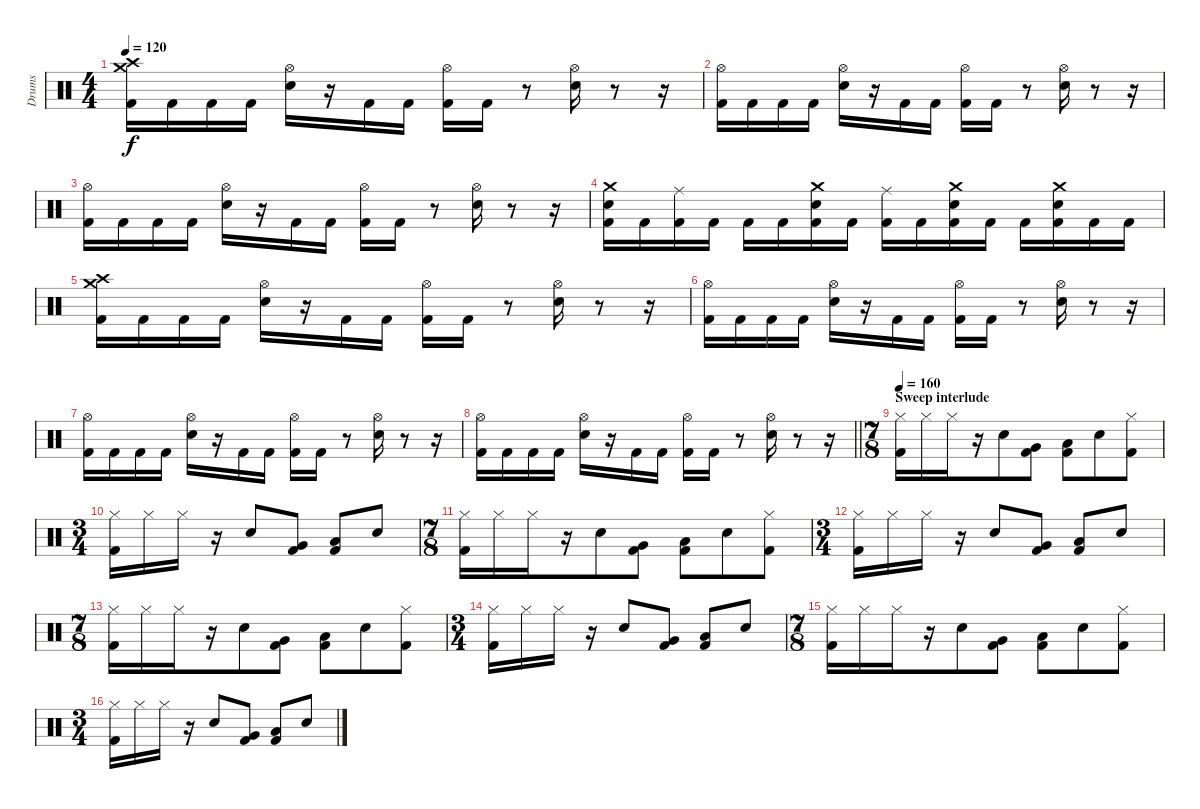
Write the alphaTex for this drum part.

\track ("Drums" "Drums") {instrument percussion}
\staff {score}
\articulation defaults
\ts (4 4)
\tempo 120
\clef neutral
\ks c
("Crash medium (hit)" "Crash high (hit)" "Kick (hit) 2").16{dy f} "Kick (hit) 2".16 "Kick (hit) 2".16 "Kick (hit) 2".16 ("Hi-Hat (open)" "Electric Snare (hit)").16 r.16 "Kick (hit) 2".16 "Kick (hit) 2".16 ("Hi-Hat (open)" "Kick (hit) 2").16 "Kick (hit) 2".16 r.8 ("Hi-Hat (open)" "Electric Snare (hit)").16 r.8 r.16 |
("Hi-Hat (open)" "Kick (hit) 2").16 "Kick (hit) 2".16 "Kick (hit) 2".16 "Kick (hit) 2".16 ("Hi-Hat (open)" "Electric Snare (hit)").16 r.16 "Kick (hit) 2".16 "Kick (hit) 2".16 ("Hi-Hat (open)" "Kick (hit) 2").16 "Kick (hit) 2".16 r.8 ("Hi-Hat (open)" "Electric Snare (hit)").16 r.8 r.16 |
("Hi-Hat (open)" "Kick (hit) 2").16 "Kick (hit) 2".16 "Kick (hit) 2".16 "Kick (hit) 2".16 ("Hi-Hat (open)" "Electric Snare (hit)").16 r.16 "Kick (hit) 2".16 "Kick (hit) 2".16 ("Hi-Hat (open)" "Kick (hit) 2").16 "Kick (hit) 2".16 r.8 ("Hi-Hat (open)" "Electric Snare (hit)").16 r.8 r.16 |
("Crash medium (hit)" "Electric Snare (hit)" "Kick (hit) 2").16 "Kick (hit) 2".16 ("Ride (middle)" "Kick (hit) 2").16 "Kick (hit) 2".16 "Kick (hit) 2".16 "Kick (hit) 2".16 ("Crash medium (hit)" "Electric Snare (hit)" "Kick (hit) 2").16 "Kick (hit) 2".16 ("Ride (middle)" "Kick (hit) 2").16 "Kick (hit) 2".16 ("Crash medium (hit)" "Electric Snare (hit)" "Kick (hit) 2").16 "Kick (hit) 2".16 "Kick (hit) 2".16 ("Crash medium (hit)" "Electric Snare (hit)" "Kick (hit) 2").16 "Kick (hit) 2".16 "Kick (hit) 2".16 |
("Crash medium (hit)" "Crash high (hit)" "Kick (hit) 2").16 "Kick (hit) 2".16 "Kick (hit) 2".16 "Kick (hit) 2".16 ("Hi-Hat (open)" "Electric Snare (hit)").16 r.16 "Kick (hit) 2".16 "Kick (hit) 2".16 ("Hi-Hat (open)" "Kick (hit) 2").16 "Kick (hit) 2".16 r.8 ("Hi-Hat (open)" "Electric Snare (hit)").16 r.8 r.16 |
("Hi-Hat (open)" "Kick (hit) 2").16 "Kick (hit) 2".16 "Kick (hit) 2".16 "Kick (hit) 2".16 ("Hi-Hat (open)" "Electric Snare (hit)").16 r.16 "Kick (hit) 2".16 "Kick (hit) 2".16 ("Hi-Hat (open)" "Kick (hit) 2").16 "Kick (hit) 2".16 r.8 ("Hi-Hat (open)" "Electric Snare (hit)").16 r.8 r.16 |
("Hi-Hat (open)" "Kick (hit) 2").16 "Kick (hit) 2".16 "Kick (hit) 2".16 "Kick (hit) 2".16 ("Hi-Hat (open)" "Electric Snare (hit)").16 r.16 "Kick (hit) 2".16 "Kick (hit) 2".16 ("Hi-Hat (open)" "Kick (hit) 2").16 "Kick (hit) 2".16 r.8 ("Hi-Hat (open)" "Electric Snare (hit)").16 r.8 r.16 |
\barLineRight lightlight
("Hi-Hat (open)" "Kick (hit) 2").16 "Kick (hit) 2".16 "Kick (hit) 2".16 "Kick (hit) 2".16 ("Hi-Hat (open)" "Electric Snare (hit)").16 r.16 "Kick (hit) 2".16 "Kick (hit) 2".16 ("Hi-Hat (open)" "Kick (hit) 2").16 "Kick (hit) 2".16 r.8 ("Hi-Hat (open)" "Electric Snare (hit)").16 r.8 r.16 |
\ts (7 8)
\section ("" "Sweep interlude")
\tempo 160
("Hi-Hat (closed)" "Kick (hit) 2").16 "Hi-Hat (closed)".16 "Hi-Hat (closed)".16 r.16 "Electric Snare (hit)".8 ("Very Low Tom (hit)" "Kick (hit) 2").8 ("Low Floor Tom (hit)" "Kick (hit) 2").8 "Electric Snare (hit)".8 ("Hi-Hat (closed)" "Kick (hit) 2").8 |
\ts (3 4)
("Hi-Hat (closed)" "Kick (hit) 2").16 "Hi-Hat (closed)".16 "Hi-Hat (closed)".16 r.16 "Electric Snare (hit)".8 ("Very Low Tom (hit)" "Kick (hit) 2").8 ("Low Floor Tom (hit)" "Kick (hit) 2").8 "Electric Snare (hit)".8 |
\ts (7 8)
("Hi-Hat (closed)" "Kick (hit) 2").16 "Hi-Hat (closed)".16 "Hi-Hat (closed)".16 r.16 "Electric Snare (hit)".8 ("Very Low Tom (hit)" "Kick (hit) 2").8 ("Low Floor Tom (hit)" "Kick (hit) 2").8 "Electric Snare (hit)".8 ("Hi-Hat (closed)" "Kick (hit) 2").8 |
\ts (3 4)
("Hi-Hat (closed)" "Kick (hit) 2").16 "Hi-Hat (closed)".16 "Hi-Hat (closed)".16 r.16 "Electric Snare (hit)".8 ("Very Low Tom (hit)" "Kick (hit) 2").8 ("Low Floor Tom (hit)" "Kick (hit) 2").8 "Electric Snare (hit)".8 |
\ts (7 8)
("Hi-Hat (closed)" "Kick (hit) 2").16 "Hi-Hat (closed)".16 "Hi-Hat (closed)".16 r.16 "Electric Snare (hit)".8 ("Very Low Tom (hit)" "Kick (hit) 2").8 ("Low Floor Tom (hit)" "Kick (hit) 2").8 "Electric Snare (hit)".8 ("Hi-Hat (closed)" "Kick (hit) 2").8 |
\ts (3 4)
("Hi-Hat (closed)" "Kick (hit) 2").16 "Hi-Hat (closed)".16 "Hi-Hat (closed)".16 r.16 "Electric Snare (hit)".8 ("Very Low Tom (hit)" "Kick (hit) 2").8 ("Low Floor Tom (hit)" "Kick (hit) 2").8 "Electric Snare (hit)".8 |
\ts (7 8)
("Hi-Hat (closed)" "Kick (hit) 2").16 "Hi-Hat (closed)".16 "Hi-Hat (closed)".16 r.16 "Electric Snare (hit)".8 ("Very Low Tom (hit)" "Kick (hit) 2").8 ("Low Floor Tom (hit)" "Kick (hit) 2").8 "Electric Snare (hit)".8 ("Hi-Hat (closed)" "Kick (hit) 2").8 |
\ts (3 4)
("Hi-Hat (closed)" "Kick (hit) 2").16 "Hi-Hat (closed)".16 "Hi-Hat (closed)".16 r.16 "Electric Snare (hit)".8 ("Very Low Tom (hit)" "Kick (hit) 2").8 ("Low Floor Tom (hit)" "Kick (hit) 2").8 "Electric Snare (hit)".8
